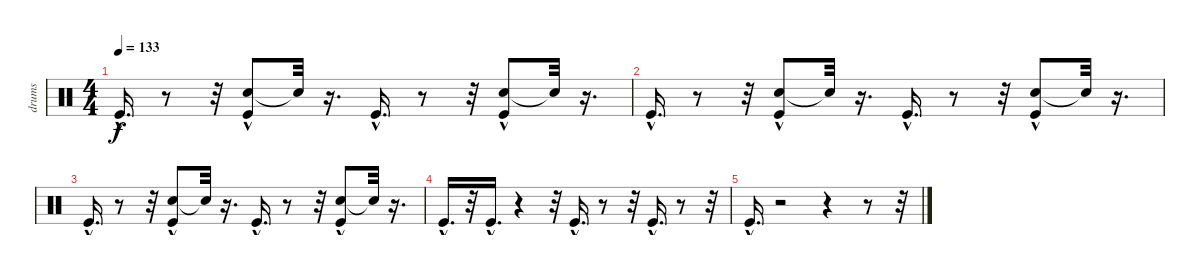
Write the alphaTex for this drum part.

\track ("drums" "drums") {instrument percussion}
\staff {score}
\articulation defaults
\ts (4 4)
\tempo 133
\clef neutral
\ks c "Kick (hit)"{hac}.16{d dy f}
r.8 r.32 ("Hand Clap (hit)" "Kick (hit)"{hac}).8 "Snare (hit)"{t}.32 r.16{d} "Kick (hit)"{hac}.16{d} r.8 r.32 ("Hand Clap (hit)" "Kick (hit)"{hac}).8 "Snare (hit)"{t}.32 r.16{d} |
"Kick (hit)"{hac}.16{d} r.8 r.32 ("Hand Clap (hit)" "Kick (hit)"{hac}).8 "Snare (hit)"{t}.32 r.16{d} "Kick (hit)"{hac}.16{d} r.8 r.32 ("Hand Clap (hit)" "Kick (hit)"{hac}).8 "Snare (hit)"{t}.32 r.16{d} |
"Kick (hit)"{hac}.16{d} r.8 r.32 ("Hand Clap (hit)" "Kick (hit)"{hac}).8 "Snare (hit)"{t}.32 r.16{d} "Kick (hit)"{hac}.16{d} r.8 r.32 ("Hand Clap (hit)" "Kick (hit)"{hac}).8 "Snare (hit)"{t}.32 r.16{d} |
"Kick (hit)"{hac}.16{d} r.32 "Kick (hit)"{hac}.16{d} r.4 r.32 "Kick (hit)"{hac}.16{d} r.8 r.32 "Kick (hit)"{hac}.16{d} r.8 r.32 |
"Kick (hit)"{hac}.16{d} r.2 r.4 r.8 r.32
